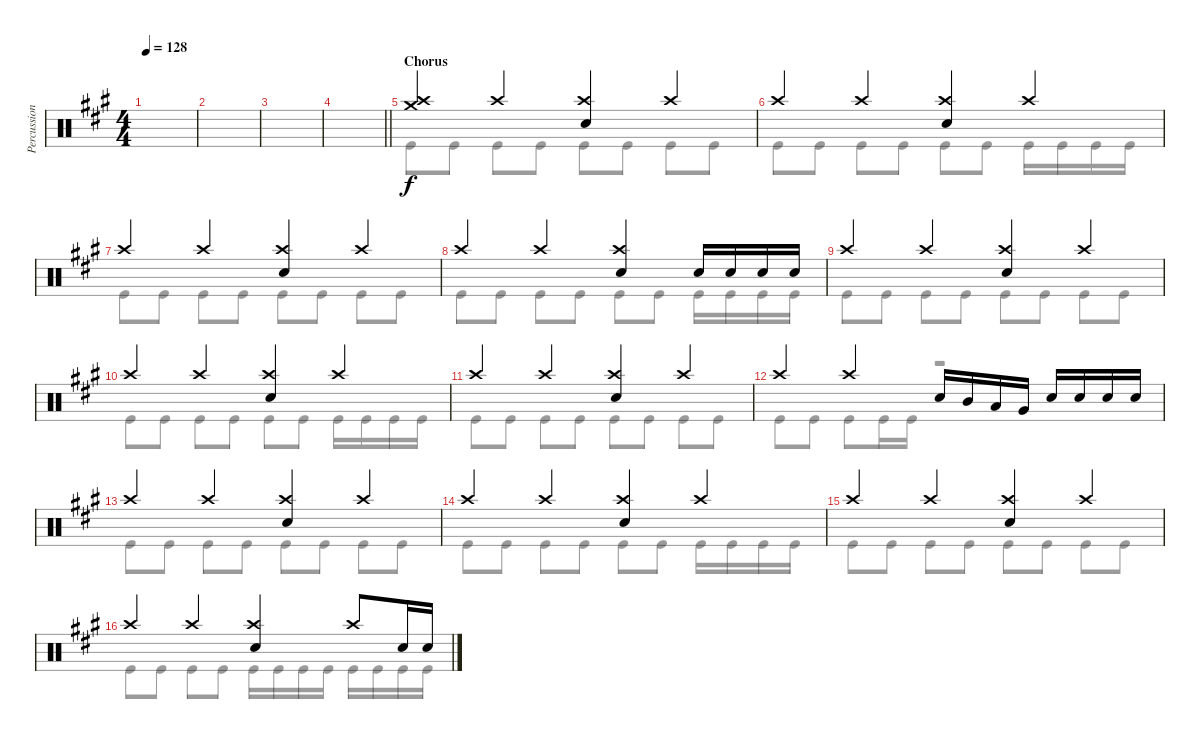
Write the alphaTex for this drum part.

\track ("Percussion" "Percussion") {instrument percussion}
\staff {score}
\articulation defaults
\voice
\ts (4 4)
\tempo 128
\clef neutral
\ks f#minor
|
|
|
\barLineRight lightlight
|
\section ("" "Chorus")
("Crash medium (hit)" "Crash high (hit)").4 "Crash high (hit)".4 ("Crash high (hit)" "Electric Snare (hit)").4 "Crash high (hit)".4 |
"Crash high (hit)".4 "Crash high (hit)".4 ("Crash high (hit)" "Electric Snare (hit)").4 "Crash high (hit)".4 |
"Crash high (hit)".4 "Crash high (hit)".4 ("Crash high (hit)" "Electric Snare (hit)").4 "Crash high (hit)".4 |
"Crash high (hit)".4 "Crash high (hit)".4 ("Crash high (hit)" "Electric Snare (hit)").4 "Electric Snare (hit)".16 "Electric Snare (hit)".16 "Electric Snare (hit)".16 "Electric Snare (hit)".16 |
"Crash high (hit)".4 "Crash high (hit)".4 ("Crash high (hit)" "Electric Snare (hit)").4 "Crash high (hit)".4 |
"Crash high (hit)".4 "Crash high (hit)".4 ("Crash high (hit)" "Electric Snare (hit)").4 "Crash high (hit)".4 |
"Crash high (hit)".4 "Crash high (hit)".4 ("Crash high (hit)" "Electric Snare (hit)").4 "Crash high (hit)".4 |
"Crash high (hit)".4 "Crash high (hit)".4 "Electric Snare (hit)".16 "Mid Tom (hit)".16 "Low Tom (hit)".16 "Very Low Tom (hit)".16 "Electric Snare (hit)".16 "Electric Snare (hit)".16 "Electric Snare (hit)".16 "Electric Snare (hit)".16 |
"Crash high (hit)".4 "Crash high (hit)".4 ("Crash high (hit)" "Electric Snare (hit)").4 "Crash high (hit)".4 |
"Crash high (hit)".4 "Crash high (hit)".4 ("Crash high (hit)" "Electric Snare (hit)").4 "Crash high (hit)".4 |
"Crash high (hit)".4 "Crash high (hit)".4 ("Crash high (hit)" "Electric Snare (hit)").4 "Crash high (hit)".4 |
"Crash high (hit)".4 "Crash high (hit)".4 ("Crash high (hit)" "Electric Snare (hit)").4 "Crash high (hit)".8 "Electric Snare (hit)".16 "Electric Snare (hit)".16
\voice
\clef neutral
\ottava regular
\simile none
\ks f#minor
|
|
|
\barLineRight lightlight
|
"Kick (hit)".8 "Kick (hit)".8 "Kick (hit)".8 "Kick (hit)".8 "Kick (hit)".8 "Kick (hit)".8 "Kick (hit)".8 "Kick (hit)".8 |
"Kick (hit)".8 "Kick (hit)".8 "Kick (hit)".8 "Kick (hit)".8 "Kick (hit)".8 "Kick (hit)".8 "Kick (hit)".16 "Kick (hit)".16 "Kick (hit)".16 "Kick (hit)".16 |
"Kick (hit)".8 "Kick (hit)".8 "Kick (hit)".8 "Kick (hit)".8 "Kick (hit)".8 "Kick (hit)".8 "Kick (hit)".8 "Kick (hit)".8 |
"Kick (hit)".8 "Kick (hit)".8 "Kick (hit)".8 "Kick (hit)".8 "Kick (hit)".8 "Kick (hit)".8 "Kick (hit)".16 "Kick (hit)".16 "Kick (hit)".16 "Kick (hit)".16 |
"Kick (hit)".8 "Kick (hit)".8 "Kick (hit)".8 "Kick (hit)".8 "Kick (hit)".8 "Kick (hit)".8 "Kick (hit)".8 "Kick (hit)".8 |
"Kick (hit)".8 "Kick (hit)".8 "Kick (hit)".8 "Kick (hit)".8 "Kick (hit)".8 "Kick (hit)".8 "Kick (hit)".16 "Kick (hit)".16 "Kick (hit)".16 "Kick (hit)".16 |
"Kick (hit)".8 "Kick (hit)".8 "Kick (hit)".8 "Kick (hit)".8 "Kick (hit)".8 "Kick (hit)".8 "Kick (hit)".8 "Kick (hit)".8 |
"Kick (hit)".8 "Kick (hit)".8 "Kick (hit)".8 "Kick (hit)".16 "Kick (hit)".16 r.2 |
"Kick (hit)".8 "Kick (hit)".8 "Kick (hit)".8 "Kick (hit)".8 "Kick (hit)".8 "Kick (hit)".8 "Kick (hit)".8 "Kick (hit)".8 |
"Kick (hit)".8 "Kick (hit)".8 "Kick (hit)".8 "Kick (hit)".8 "Kick (hit)".8 "Kick (hit)".8 "Kick (hit)".16 "Kick (hit)".16 "Kick (hit)".16 "Kick (hit)".16 |
"Kick (hit)".8 "Kick (hit)".8 "Kick (hit)".8 "Kick (hit)".8 "Kick (hit)".8 "Kick (hit)".8 "Kick (hit)".8 "Kick (hit)".8 |
"Kick (hit)".8 "Kick (hit)".8 "Kick (hit)".8 "Kick (hit)".8 "Kick (hit)".16 "Kick (hit)".16 "Kick (hit)".16 "Kick (hit)".16 "Kick (hit)".16 "Kick (hit)".16 "Kick (hit)".16 "Kick (hit)".16
